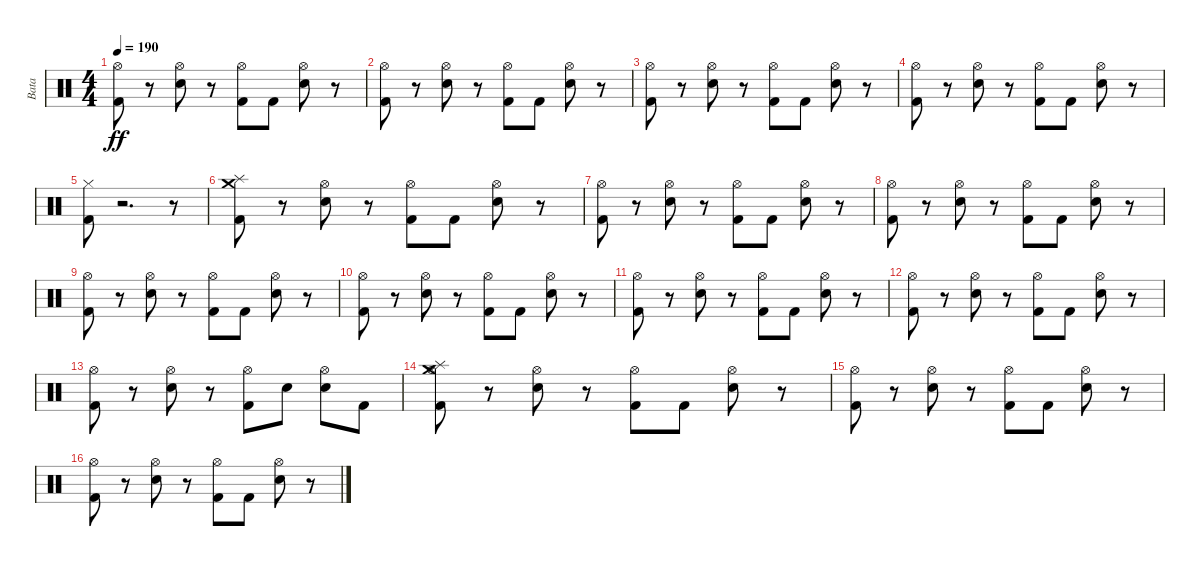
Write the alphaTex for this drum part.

\track ("Bata" "Bata") {instrument percussion}
\staff {score}
\articulation defaults
\ts (4 4)
\tempo 190
\clef neutral
\ks c
("Kick (hit) 2" "Hi-Hat (open)").8{dy ff} r.8 ("Snare (hit) 2" "Hi-Hat (open)").8 r.8 ("Hi-Hat (open)" "Kick (hit) 2").8 "Kick (hit) 2".8 ("Snare (hit) 2" "Hi-Hat (open)").8 r.8 |
("Kick (hit) 2" "Hi-Hat (open)").8 r.8 ("Hi-Hat (open)" "Snare (hit) 2").8 r.8 ("Kick (hit) 2" "Hi-Hat (open)").8 "Kick (hit) 2".8 ("Hi-Hat (open)" "Snare (hit) 2").8 r.8 |
("Kick (hit) 2" "Hi-Hat (open)").8 r.8 ("Snare (hit) 2" "Hi-Hat (open)").8 r.8 ("Kick (hit) 2" "Hi-Hat (open)").8 "Kick (hit) 2".8 ("Snare (hit) 2" "Hi-Hat (open)").8 r.8 |
("Hi-Hat (open)" "Kick (hit) 2").8 r.8 ("Snare (hit) 2" "Hi-Hat (open)").8 r.8 ("Kick (hit) 2" "Hi-Hat (open)").8 "Kick (hit) 2".8 ("Snare (hit) 2" "Hi-Hat (open)").8 r.8 |
("Kick (hit) 2" "Hi-Hat (closed)").8 r.2{d} r.8 |
("Kick (hit) 2" "Splash (hit)" "Crash medium (hit)").8 r.8 ("Snare (hit) 2" "Hi-Hat (open)").8 r.8 ("Hi-Hat (open)" "Kick (hit) 2").8 "Kick (hit) 2".8 ("Hi-Hat (open)" "Snare (hit) 2").8 r.8 |
("Hi-Hat (open)" "Kick (hit) 2").8 r.8 ("Hi-Hat (open)" "Snare (hit) 2").8 r.8 ("Hi-Hat (open)" "Kick (hit) 2").8 "Kick (hit) 2".8 ("Hi-Hat (open)" "Snare (hit) 2").8 r.8 |
("Kick (hit) 2" "Hi-Hat (open)").8 r.8 ("Snare (hit) 2" "Hi-Hat (open)").8 r.8 ("Hi-Hat (open)" "Kick (hit) 2").8 "Kick (hit) 2".8 ("Snare (hit) 2" "Hi-Hat (open)").8 r.8 |
("Hi-Hat (open)" "Kick (hit) 2").8 r.8 ("Hi-Hat (open)" "Snare (hit) 2").8 r.8 ("Hi-Hat (open)" "Kick (hit) 2").8 "Kick (hit) 2".8 ("Snare (hit) 2" "Hi-Hat (open)").8 r.8 |
("Kick (hit) 2" "Hi-Hat (open)").8 r.8 ("Hi-Hat (open)" "Snare (hit) 2").8 r.8 ("Kick (hit) 2" "Hi-Hat (open)").8 "Kick (hit) 2".8 ("Snare (hit) 2" "Hi-Hat (open)").8 r.8 |
("Hi-Hat (open)" "Kick (hit) 2").8 r.8 ("Hi-Hat (open)" "Snare (hit) 2").8 r.8 ("Kick (hit) 2" "Hi-Hat (open)").8 "Kick (hit) 2".8 ("Hi-Hat (open)" "Snare (hit) 2").8 r.8 |
("Hi-Hat (open)" "Kick (hit) 2").8 r.8 ("Snare (hit) 2" "Hi-Hat (open)").8 r.8 ("Kick (hit) 2" "Hi-Hat (open)").8 "Kick (hit) 2".8 ("Hi-Hat (open)" "Snare (hit) 2").8 r.8 |
("Kick (hit) 2" "Hi-Hat (open)").8 r.8 ("Snare (hit) 2" "Hi-Hat (open)").8 r.8 ("Hi-Hat (open)" "Kick (hit) 2").8 "Snare (hit) 2".8 ("Snare (hit) 2" "Hi-Hat (open)").8 "Kick (hit) 2".8 |
("Splash (hit)" "Crash medium (hit)" "Kick (hit) 2" "Hi-Hat (open)").8 r.8 ("Snare (hit) 2" "Hi-Hat (open)").8 r.8 ("Kick (hit) 2" "Hi-Hat (open)").8 "Kick (hit) 2".8 ("Snare (hit) 2" "Hi-Hat (open)").8 r.8 |
("Hi-Hat (open)" "Kick (hit) 2").8 r.8 ("Snare (hit) 2" "Hi-Hat (open)").8 r.8 ("Hi-Hat (open)" "Kick (hit) 2").8 "Kick (hit) 2".8 ("Hi-Hat (open)" "Snare (hit) 2").8 r.8 |
("Kick (hit) 2" "Hi-Hat (open)").8 r.8 ("Snare (hit) 2" "Hi-Hat (open)").8 r.8 ("Kick (hit) 2" "Hi-Hat (open)").8 "Kick (hit) 2".8 ("Hi-Hat (open)" "Snare (hit) 2").8 r.8
